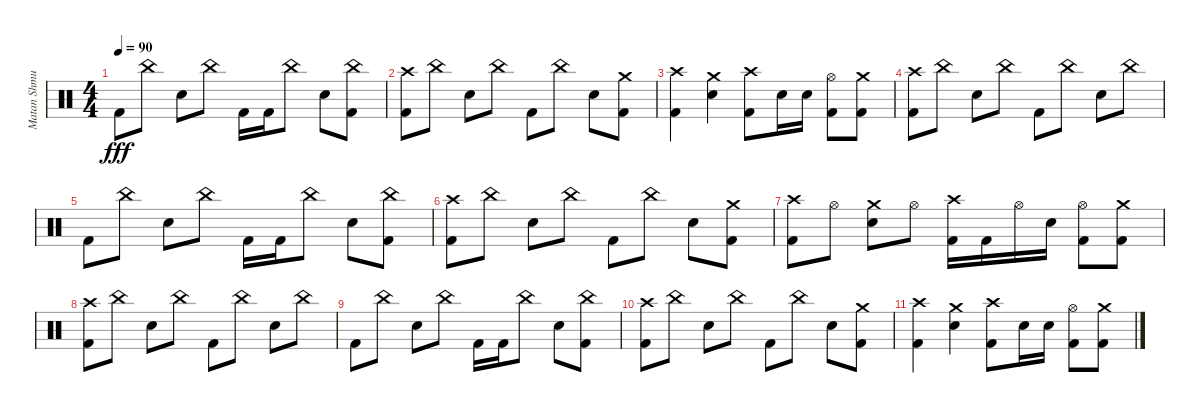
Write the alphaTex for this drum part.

\track ("Matan Shmuely " "Matan Shmu") {instrument percussion}
\staff {score}
\articulation defaults
\ts (4 4)
\tempo 90
\clef neutral
\ks c "Kick (hit) 2".8{dy fff} "China (hit)".8 "Electric Snare (hit)".8 "China (hit)".8 "Kick (hit) 2".16 "Kick (hit) 2".16 "China (hit)".8 "Electric Snare (hit)".8
("Kick (hit) 2" "China (hit)").8 |
("Kick (hit) 2" "Crash high (hit)").8 "China (hit)".8 "Electric Snare (hit)".8 "China (hit)".8 "Kick (hit) 2".8 "China (hit)".8 "Electric Snare (hit)".8 ("Kick (hit) 2" "Crash medium (hit)").8 |
("Kick (hit) 2" "Crash high (hit)").4 ("Electric Snare (hit)" "Crash medium (hit)").4 ("Kick (hit) 2" "Crash high (hit)").8 "Electric Snare (hit)".16 "Electric Snare (hit)".16 ("Kick (hit) 2" "Hi-Hat (open)").8 ("Kick (hit) 2" "Crash medium (hit)").8 |
("Kick (hit) 2" "Crash high (hit)").8 "China (hit)".8 "Electric Snare (hit)".8 "China (hit)".8 "Kick (hit) 2".8 "China (hit)".8 "Electric Snare (hit)".8 "China (hit)".8 |
"Kick (hit) 2".8 "China (hit)".8 "Electric Snare (hit)".8 "China (hit)".8 "Kick (hit) 2".16 "Kick (hit) 2".16 "China (hit)".8 "Electric Snare (hit)".8 ("Kick (hit) 2" "China (hit)").8 |
("Kick (hit) 2" "Crash high (hit)").8 "China (hit)".8 "Electric Snare (hit)".8 "China (hit)".8 "Kick (hit) 2".8 "China (hit)".8 "Electric Snare (hit)".8 ("Kick (hit) 2" "Crash medium (hit)").8 |
("Kick (hit) 2" "Crash high (hit)").8 "Hi-Hat (open)".8 ("Electric Snare (hit)" "Crash medium (hit)").8 "Hi-Hat (open)".8 ("Kick (hit) 2" "Crash high (hit)").16 "Kick (hit) 2".16 "Hi-Hat (open)".16 "Electric Snare (hit)".16 ("Kick (hit) 2" "Hi-Hat (open)").8 ("Kick (hit) 2" "Crash medium (hit)").8 |
("Kick (hit) 2" "Crash high (hit)").8 "China (hit)".8 "Electric Snare (hit)".8 "China (hit)".8 "Kick (hit) 2".8 "China (hit)".8 "Electric Snare (hit)".8 "China (hit)".8 |
"Kick (hit) 2".8 "China (hit)".8 "Electric Snare (hit)".8 "China (hit)".8 "Kick (hit) 2".16 "Kick (hit) 2".16 "China (hit)".8 "Electric Snare (hit)".8 ("Kick (hit) 2" "China (hit)").8 |
("Kick (hit) 2" "Crash high (hit)").8 "China (hit)".8 "Electric Snare (hit)".8 "China (hit)".8 "Kick (hit) 2".8 "China (hit)".8 "Electric Snare (hit)".8 ("Kick (hit) 2" "Crash medium (hit)").8 |
("Kick (hit) 2" "Crash high (hit)").4 ("Electric Snare (hit)" "Crash medium (hit)").4 ("Kick (hit) 2" "Crash high (hit)").8 "Electric Snare (hit)".16 "Electric Snare (hit)".16 ("Kick (hit) 2" "Hi-Hat (open)").8 ("Kick (hit) 2" "Crash medium (hit)").8
